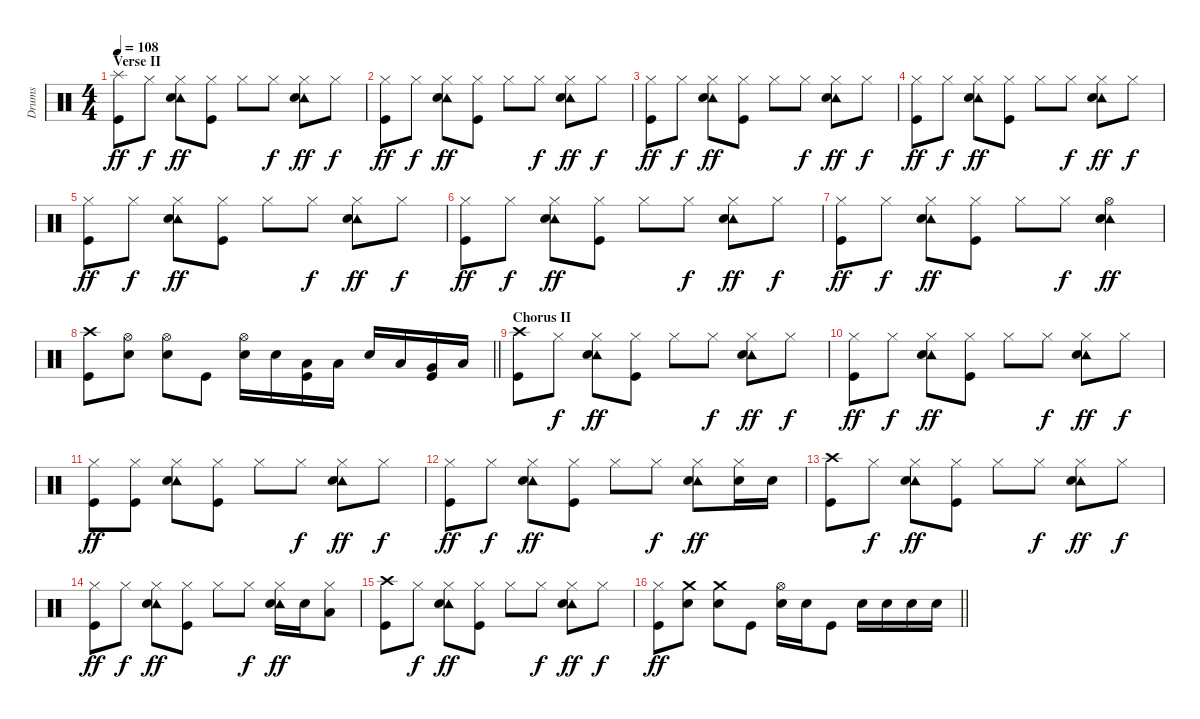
\track ("Drums" "Drums") {instrument percussion}
\staff {score}
\articulation defaults
\ts (4 4)
\section ("" "Verse II")
\tempo 108
\clef neutral
\ks c
("Splash (hit)" "Kick (hit)").8{dy ff} "Hi-Hat (closed)".8{dy f} ("Hi-Hat (closed)" "Tambourine (hit)" "Electric Snare (hit)").8{dy ff} ("Hi-Hat (closed)" "Kick (hit)").8 "Hi-Hat (closed)".8 "Hi-Hat (closed)".8{dy f} ("Hi-Hat (closed)" "Tambourine (hit)" "Electric Snare (hit)").8{dy ff} "Hi-Hat (closed)".8{dy f} |
("Hi-Hat (closed)" "Kick (hit)").8{dy ff} "Hi-Hat (closed)".8{dy f} ("Hi-Hat (closed)" "Tambourine (hit)" "Electric Snare (hit)").8{dy ff} ("Hi-Hat (closed)" "Kick (hit)").8 "Hi-Hat (closed)".8 "Hi-Hat (closed)".8{dy f} ("Hi-Hat (closed)" "Tambourine (hit)" "Electric Snare (hit)").8{dy ff} "Hi-Hat (closed)".8{dy f} |
("Hi-Hat (closed)" "Kick (hit)").8{dy ff} "Hi-Hat (closed)".8{dy f} ("Hi-Hat (closed)" "Tambourine (hit)" "Electric Snare (hit)").8{dy ff} ("Hi-Hat (closed)" "Kick (hit)").8 "Hi-Hat (closed)".8 "Hi-Hat (closed)".8{dy f} ("Hi-Hat (closed)" "Tambourine (hit)" "Electric Snare (hit)").8{dy ff} "Hi-Hat (closed)".8{dy f} |
("Hi-Hat (closed)" "Kick (hit)").8{dy ff} "Hi-Hat (closed)".8{dy f} ("Hi-Hat (closed)" "Tambourine (hit)" "Electric Snare (hit)").8{dy ff} ("Hi-Hat (closed)" "Kick (hit)").8 "Hi-Hat (closed)".8 "Hi-Hat (closed)".8{dy f} ("Hi-Hat (closed)" "Tambourine (hit)" "Electric Snare (hit)").8{dy ff} "Hi-Hat (closed)".8{dy f} |
("Hi-Hat (closed)" "Kick (hit)").8{dy ff} "Hi-Hat (closed)".8{dy f} ("Hi-Hat (closed)" "Tambourine (hit)" "Electric Snare (hit)").8{dy ff} ("Hi-Hat (closed)" "Kick (hit)").8 "Hi-Hat (closed)".8 "Hi-Hat (closed)".8{dy f} ("Hi-Hat (closed)" "Tambourine (hit)" "Electric Snare (hit)").8{dy ff} "Hi-Hat (closed)".8{dy f} |
("Hi-Hat (closed)" "Kick (hit)").8{dy ff} "Hi-Hat (closed)".8{dy f} ("Hi-Hat (closed)" "Tambourine (hit)" "Electric Snare (hit)").8{dy ff} ("Hi-Hat (closed)" "Kick (hit)").8 "Hi-Hat (closed)".8 "Hi-Hat (closed)".8{dy f} ("Hi-Hat (closed)" "Tambourine (hit)" "Electric Snare (hit)").8{dy ff} "Hi-Hat (closed)".8{dy f} |
("Hi-Hat (closed)" "Kick (hit)").8{dy ff} "Hi-Hat (closed)".8{dy f} ("Hi-Hat (closed)" "Tambourine (hit)" "Electric Snare (hit)").8{dy ff} ("Hi-Hat (closed)" "Kick (hit)").8 "Hi-Hat (closed)".8 "Hi-Hat (closed)".8{dy f} ("Hi-Hat (open)" "Tambourine (hit)" "Electric Snare (hit)").4{dy ff} |
\barLineRight lightlight
("Crash high (hit)" "Kick (hit)").8 ("Hi-Hat (open)" "Electric Snare (hit)").8 ("Hi-Hat (open)" "Electric Snare (hit)").8 "Kick (hit)".8 ("Hi-Hat (open)" "Electric Snare (hit)").16 "Electric Snare (hit)".16 ("Low Tom (hit)" "Kick (hit)").16 "Low Tom (hit)".16 "Electric Snare (hit)".16 "Low Tom (hit)".16 ("Very Low Tom (hit)" "Kick (hit)").16 "Low Floor Tom (hit)".16 |
\section ("" "Chorus II")
("Crash high (hit)" "Kick (hit)").8 "Hi-Hat (closed)".8{dy f} ("Hi-Hat (closed)" "Tambourine (hit)" "Electric Snare (hit)").8{dy ff} ("Hi-Hat (closed)" "Kick (hit)").8 "Hi-Hat (closed)".8 "Hi-Hat (closed)".8{dy f} ("Hi-Hat (closed)" "Tambourine (hit)" "Electric Snare (hit)").8{dy ff} "Hi-Hat (closed)".8{dy f} |
("Hi-Hat (closed)" "Kick (hit)").8{dy ff} "Hi-Hat (closed)".8{dy f} ("Hi-Hat (closed)" "Tambourine (hit)" "Electric Snare (hit)").8{dy ff} ("Hi-Hat (closed)" "Kick (hit)").8 "Hi-Hat (closed)".8 "Hi-Hat (closed)".8{dy f} ("Hi-Hat (closed)" "Tambourine (hit)" "Electric Snare (hit)").8{dy ff} "Hi-Hat (closed)".8{dy f} |
("Hi-Hat (closed)" "Kick (hit)").8{dy ff} ("Hi-Hat (closed)" "Kick (hit)").8 ("Hi-Hat (closed)" "Tambourine (hit)" "Electric Snare (hit)").8 ("Hi-Hat (closed)" "Kick (hit)").8 "Hi-Hat (closed)".8 "Hi-Hat (closed)".8{dy f} ("Hi-Hat (closed)" "Tambourine (hit)" "Electric Snare (hit)").8{dy ff} "Hi-Hat (closed)".8{dy f} |
("Hi-Hat (closed)" "Kick (hit)").8{dy ff} "Hi-Hat (closed)".8{dy f} ("Hi-Hat (closed)" "Tambourine (hit)" "Electric Snare (hit)").8{dy ff} ("Hi-Hat (closed)" "Kick (hit)").8 "Hi-Hat (closed)".8 "Hi-Hat (closed)".8{dy f} ("Hi-Hat (closed)" "Tambourine (hit)" "Electric Snare (hit)").8{dy ff} ("Hi-Hat (closed)" "Electric Snare (hit)").16 "Electric Snare (hit)".16 |
("Crash high (hit)" "Kick (hit)").8 "Hi-Hat (closed)".8{dy f} ("Hi-Hat (closed)" "Tambourine (hit)" "Electric Snare (hit)").8{dy ff} ("Hi-Hat (closed)" "Kick (hit)").8 "Hi-Hat (closed)".8 "Hi-Hat (closed)".8{dy f} ("Hi-Hat (closed)" "Tambourine (hit)" "Electric Snare (hit)").8{dy ff} "Hi-Hat (closed)".8{dy f} |
("Hi-Hat (closed)" "Kick (hit)").8{dy ff} "Hi-Hat (closed)".8{dy f} ("Hi-Hat (closed)" "Tambourine (hit)" "Electric Snare (hit)").8{dy ff} ("Hi-Hat (closed)" "Kick (hit)").8 "Hi-Hat (closed)".8 "Hi-Hat (closed)".8{dy f} ("Hi-Hat (closed)" "Tambourine (hit)" "Electric Snare (hit)").16{dy ff} "Electric Snare (hit)".16 ("Hi-Hat (closed)" "Low Tom (hit)").8 |
("Crash high (hit)" "Kick (hit)").8 "Hi-Hat (closed)".8{dy f} ("Hi-Hat (closed)" "Tambourine (hit)" "Electric Snare (hit)").8{dy ff} ("Hi-Hat (closed)" "Kick (hit)").8 "Hi-Hat (closed)".8 "Hi-Hat (closed)".8{dy f} ("Hi-Hat (closed)" "Tambourine (hit)" "Electric Snare (hit)").8{dy ff} "Hi-Hat (closed)".8{dy f} |
\barLineRight lightlight
("Hi-Hat (closed)" "Kick (hit)").8{dy ff} ("Crash medium (hit)" "Electric Snare (hit)").8 ("Crash medium (hit)" "Electric Snare (hit)").8 "Kick (hit)".8 ("Hi-Hat (open)" "Electric Snare (hit)").16 "Electric Snare (hit)".16 "Kick (hit)".8 "Electric Snare (hit)".16 "Electric Snare (hit)".16 "Electric Snare (hit)".16 "Electric Snare (hit)".16
